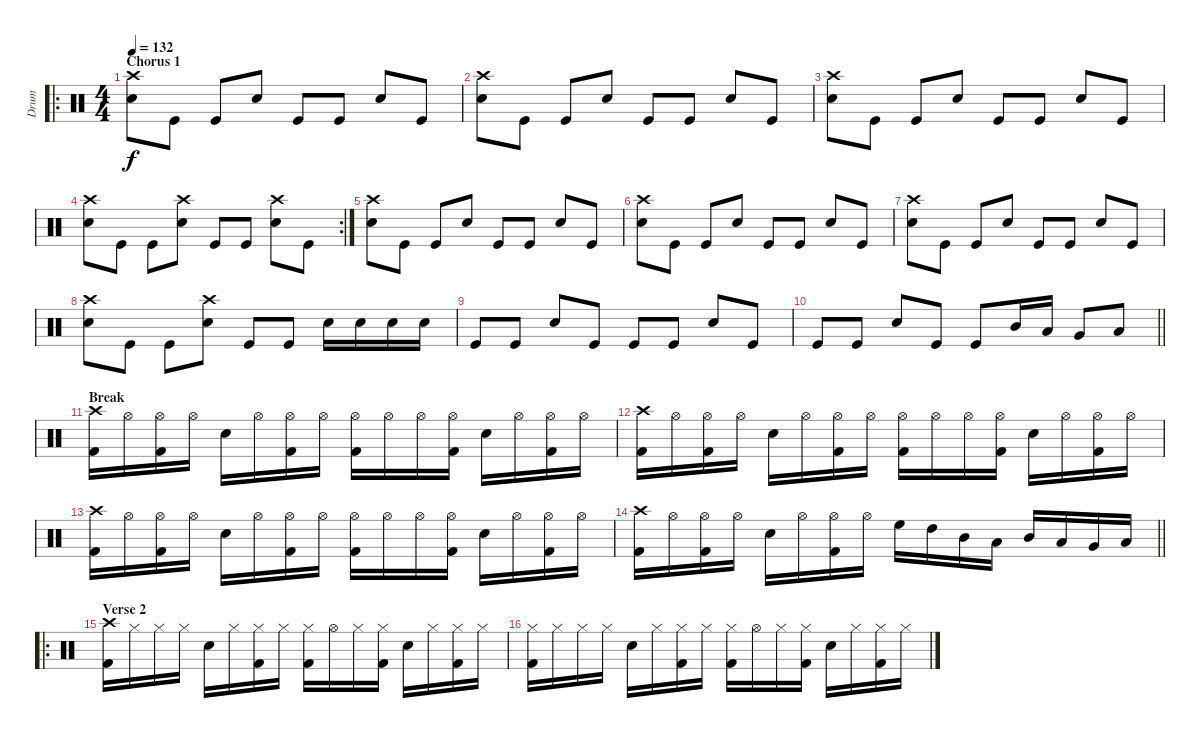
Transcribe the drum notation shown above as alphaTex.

\track ("Drum" "Drum") {instrument percussion}
\staff {score}
\articulation defaults
\ro
\ts (4 4)
\section ("" "Chorus 1")
\tempo 132
\clef neutral
\ks c
("Crash high (hit)" "Snare (hit) 2").8{dy f} "Kick (hit)".8 "Kick (hit)".8 "Snare (hit) 2".8 "Kick (hit)".8 "Kick (hit)".8 "Snare (hit) 2".8 "Kick (hit)".8 |
("Crash high (hit)" "Snare (hit) 2").8 "Kick (hit)".8 "Kick (hit)".8 "Snare (hit) 2".8 "Kick (hit)".8 "Kick (hit)".8 "Snare (hit) 2".8 "Kick (hit)".8 |
("Crash high (hit)" "Snare (hit) 2").8 "Kick (hit)".8 "Kick (hit)".8 "Snare (hit) 2".8 "Kick (hit)".8 "Kick (hit)".8 "Snare (hit) 2".8 "Kick (hit)".8 |
\rc 2
("Crash high (hit)" "Snare (hit) 2").8 "Kick (hit)".8 "Kick (hit)".8 ("Crash high (hit)" "Snare (hit) 2").8 "Kick (hit)".8 "Kick (hit)".8 ("Crash high (hit)" "Snare (hit) 2").8 "Kick (hit)".8 |
("Crash high (hit)" "Snare (hit) 2").8 "Kick (hit)".8 "Kick (hit)".8 "Snare (hit) 2".8 "Kick (hit)".8 "Kick (hit)".8 "Snare (hit) 2".8 "Kick (hit)".8 |
("Crash high (hit)" "Snare (hit) 2").8 "Kick (hit)".8 "Kick (hit)".8 "Snare (hit) 2".8 "Kick (hit)".8 "Kick (hit)".8 "Snare (hit) 2".8 "Kick (hit)".8 |
("Crash high (hit)" "Snare (hit) 2").8 "Kick (hit)".8 "Kick (hit)".8 "Snare (hit) 2".8 "Kick (hit)".8 "Kick (hit)".8 "Snare (hit) 2".8 "Kick (hit)".8 |
("Crash high (hit)" "Snare (hit) 2").8 "Kick (hit)".8 "Kick (hit)".8 ("Crash high (hit)" "Snare (hit) 2").8 "Kick (hit)".8 "Kick (hit)".8 "Snare (hit) 2".16 "Snare (hit) 2".16 "Snare (hit) 2".16 "Snare (hit) 2".16 |
"Kick (hit)".8 "Kick (hit)".8 "Snare (hit) 2".8 "Kick (hit)".8 "Kick (hit)".8 "Kick (hit)".8 "Snare (hit) 2".8 "Kick (hit)".8 |
\barLineRight lightlight "Kick (hit)".8 "Kick (hit)".8 "Snare (hit) 2".8 "Kick (hit)".8 "Kick (hit)".8 "Mid Tom (hit)".16 "Low Tom (hit)".16 "Very Low Tom (hit)".8 "Low Floor Tom (hit)".8
|
\section ("" "Break")
("Crash high (hit)" "Kick (hit) 2").16 "Hi-Hat (open)".16 ("Hi-Hat (open)" "Kick (hit) 2").16 "Hi-Hat (open)".16 "Snare (hit) 2".16 "Hi-Hat (open)".16 ("Hi-Hat (open)" "Kick (hit) 2").16 "Hi-Hat (open)".16 ("Hi-Hat (open)" "Kick (hit) 2").16 "Hi-Hat (open)".16 "Hi-Hat (open)".16 ("Hi-Hat (open)" "Kick (hit) 2").16 "Snare (hit) 2".16 "Hi-Hat (open)".16 ("Hi-Hat (open)" "Kick (hit) 2").16 "Hi-Hat (open)".16 |
("Crash high (hit)" "Kick (hit) 2").16 "Hi-Hat (open)".16 ("Hi-Hat (open)" "Kick (hit) 2").16 "Hi-Hat (open)".16 "Snare (hit) 2".16 "Hi-Hat (open)".16 ("Hi-Hat (open)" "Kick (hit) 2").16 "Hi-Hat (open)".16 ("Hi-Hat (open)" "Kick (hit) 2").16 "Hi-Hat (open)".16 "Hi-Hat (open)".16 ("Hi-Hat (open)" "Kick (hit) 2").16 "Snare (hit) 2".16 "Hi-Hat (open)".16 ("Hi-Hat (open)" "Kick (hit) 2").16 "Hi-Hat (open)".16 |
("Crash high (hit)" "Kick (hit) 2").16 "Hi-Hat (open)".16 ("Hi-Hat (open)" "Kick (hit) 2").16 "Hi-Hat (open)".16 "Snare (hit) 2".16 "Hi-Hat (open)".16 ("Hi-Hat (open)" "Kick (hit) 2").16 "Hi-Hat (open)".16 ("Hi-Hat (open)" "Kick (hit) 2").16 "Hi-Hat (open)".16 "Hi-Hat (open)".16 ("Hi-Hat (open)" "Kick (hit) 2").16 "Snare (hit) 2".16 "Hi-Hat (open)".16 ("Hi-Hat (open)" "Kick (hit) 2").16 "Hi-Hat (open)".16 |
\barLineRight lightlight
("Crash high (hit)" "Kick (hit) 2").16 "Hi-Hat (open)".16 ("Hi-Hat (open)" "Kick (hit) 2").16 "Hi-Hat (open)".16 "Snare (hit) 2".16 "Hi-Hat (open)".16 ("Hi-Hat (open)" "Kick (hit) 2").16 "Hi-Hat (open)".16 "High Floor Tom (hit)".16 "High Tom (hit)".16 "Mid Tom (hit)".16 "Low Tom (hit)".16 "Mid Tom (hit)".16 "Low Tom (hit)".16 "Very Low Tom (hit)".16 "Low Floor Tom (hit)".16 |
\ro
\section ("" "Verse 2")
("Crash high (hit)" "Kick (hit) 2").16 "Hi-Hat (closed)".16 "Hi-Hat (closed)".16 "Hi-Hat (closed)".16 "Snare (hit) 2".16 "Hi-Hat (closed)".16 ("Hi-Hat (closed)" "Kick (hit) 2").16 "Hi-Hat (closed)".16 ("Hi-Hat (closed)" "Kick (hit) 2").16 "Hi-Hat (open)".16 "Hi-Hat (closed)".16 ("Hi-Hat (closed)" "Kick (hit) 2").16 "Snare (hit) 2".16 "Hi-Hat (closed)".16 ("Hi-Hat (closed)" "Kick (hit) 2").16 "Hi-Hat (closed)".16 |
("Hi-Hat (closed)" "Kick (hit) 2").16 "Hi-Hat (closed)".16 "Hi-Hat (closed)".16 "Hi-Hat (closed)".16 "Snare (hit) 2".16 "Hi-Hat (closed)".16 ("Hi-Hat (closed)" "Kick (hit) 2").16 "Hi-Hat (closed)".16 ("Hi-Hat (closed)" "Kick (hit) 2").16 "Hi-Hat (open)".16 "Hi-Hat (closed)".16 ("Hi-Hat (closed)" "Kick (hit) 2").16 "Snare (hit) 2".16 "Hi-Hat (closed)".16 ("Hi-Hat (closed)" "Kick (hit) 2").16 "Hi-Hat (closed)".16
